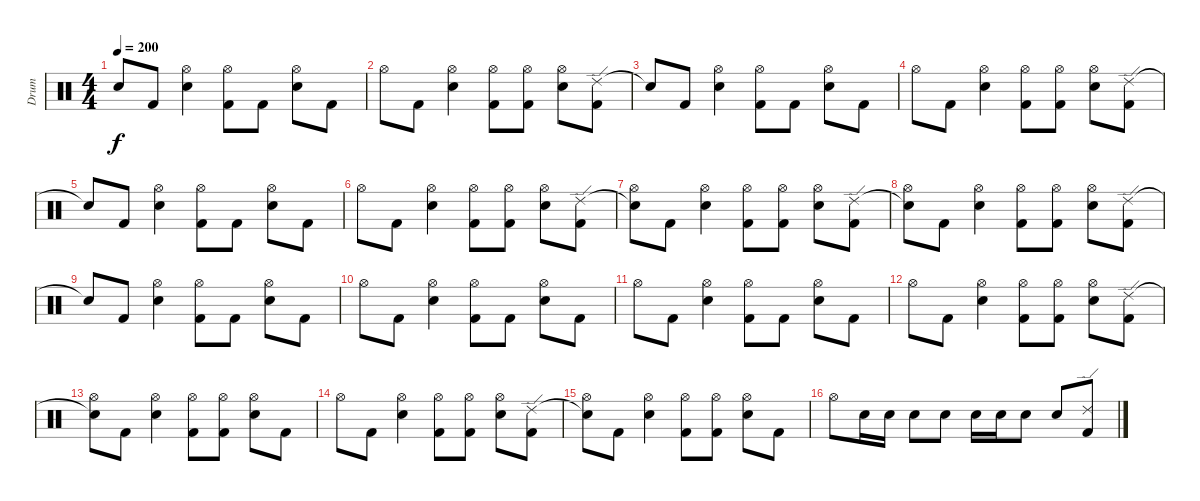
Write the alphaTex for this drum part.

\track ("Drum" "Drum") {instrument percussion}
\staff {score}
\articulation defaults
\ts (4 4)
\tempo 200
\clef neutral
\ks c "Snare (hit)"{t}.8{dy f} "Kick (hit) 2".8
("Hi-Hat (open)" "Electric Snare (hit)").4 ("Hi-Hat (open)" "Kick (hit) 2").8 "Kick (hit) 2".8 ("Hi-Hat (open)" "Electric Snare (hit)").8 "Kick (hit) 2".8 |
"Hi-Hat (open)".8 "Kick (hit) 2".8 ("Hi-Hat (open)" "Electric Snare (hit)").4 ("Hi-Hat (open)" "Kick (hit) 2").8 ("Hi-Hat (open)" "Kick (hit) 2").8 ("Hi-Hat (open)" "Electric Snare (hit)").8 ("Ride (edge) 2" "Kick (hit) 2").8 |
"Snare (hit)"{t}.8 "Kick (hit) 2".8 ("Hi-Hat (open)" "Electric Snare (hit)").4 ("Hi-Hat (open)" "Kick (hit) 2").8 "Kick (hit) 2".8 ("Hi-Hat (open)" "Electric Snare (hit)").8 "Kick (hit) 2".8 |
"Hi-Hat (open)".8 "Kick (hit) 2".8 ("Hi-Hat (open)" "Electric Snare (hit)").4 ("Hi-Hat (open)" "Kick (hit) 2").8 ("Hi-Hat (open)" "Kick (hit) 2").8 ("Hi-Hat (open)" "Electric Snare (hit)").8 ("Ride (edge) 2" "Kick (hit) 2").8 |
"Snare (hit)"{t}.8 "Kick (hit) 2".8 ("Hi-Hat (open)" "Electric Snare (hit)").4 ("Hi-Hat (open)" "Kick (hit) 2").8 "Kick (hit) 2".8 ("Hi-Hat (open)" "Electric Snare (hit)").8 "Kick (hit) 2".8 |
"Hi-Hat (open)".8 "Kick (hit) 2".8 ("Hi-Hat (open)" "Electric Snare (hit)").4 ("Hi-Hat (open)" "Kick (hit) 2").8 ("Hi-Hat (open)" "Kick (hit) 2").8 ("Hi-Hat (open)" "Electric Snare (hit)").8 ("Ride (edge) 2" "Kick (hit) 2").8 |
("Snare (hit)"{t} "Hi-Hat (open)").8 "Kick (hit) 2".8 ("Hi-Hat (open)" "Electric Snare (hit)").4 ("Hi-Hat (open)" "Kick (hit) 2").8 ("Hi-Hat (open)" "Kick (hit) 2").8 ("Hi-Hat (open)" "Electric Snare (hit)").8 ("Ride (edge) 2" "Kick (hit) 2").8 |
("Snare (hit)"{t} "Hi-Hat (open)").8 "Kick (hit) 2".8 ("Hi-Hat (open)" "Electric Snare (hit)").4 ("Hi-Hat (open)" "Kick (hit) 2").8 ("Hi-Hat (open)" "Kick (hit) 2").8 ("Hi-Hat (open)" "Electric Snare (hit)").8 ("Ride (edge) 2" "Kick (hit) 2").8 |
"Snare (hit)"{t}.8 "Kick (hit) 2".8 ("Hi-Hat (open)" "Electric Snare (hit)").4 ("Hi-Hat (open)" "Kick (hit) 2").8 "Kick (hit) 2".8 ("Hi-Hat (open)" "Electric Snare (hit)").8 "Kick (hit) 2".8 |
"Hi-Hat (open)".8 "Kick (hit) 2".8 ("Hi-Hat (open)" "Electric Snare (hit)").4 ("Hi-Hat (open)" "Kick (hit) 2").8 "Kick (hit) 2".8 ("Hi-Hat (open)" "Electric Snare (hit)").8 "Kick (hit) 2".8 |
"Hi-Hat (open)".8 "Kick (hit) 2".8 ("Hi-Hat (open)" "Electric Snare (hit)").4 ("Hi-Hat (open)" "Kick (hit) 2").8 "Kick (hit) 2".8 ("Hi-Hat (open)" "Electric Snare (hit)").8 "Kick (hit) 2".8 |
"Hi-Hat (open)".8 "Kick (hit) 2".8 ("Hi-Hat (open)" "Electric Snare (hit)").4 ("Hi-Hat (open)" "Kick (hit) 2").8 ("Hi-Hat (open)" "Kick (hit) 2").8 ("Hi-Hat (open)" "Electric Snare (hit)").8 ("Ride (edge) 2" "Kick (hit) 2").8 |
("Snare (hit)"{t} "Hi-Hat (open)").8 "Kick (hit) 2".8 ("Hi-Hat (open)" "Electric Snare (hit)").4 ("Hi-Hat (open)" "Kick (hit) 2").8 ("Hi-Hat (open)" "Kick (hit) 2").8 ("Hi-Hat (open)" "Electric Snare (hit)").8 "Kick (hit) 2".8 |
"Hi-Hat (open)".8 "Kick (hit) 2".8 ("Hi-Hat (open)" "Electric Snare (hit)").4 ("Hi-Hat (open)" "Kick (hit) 2").8 ("Hi-Hat (open)" "Kick (hit) 2").8 ("Hi-Hat (open)" "Electric Snare (hit)").8 ("Ride (edge) 2" "Kick (hit) 2").8 |
("Snare (hit)"{t} "Hi-Hat (open)").8 "Kick (hit) 2".8 ("Hi-Hat (open)" "Electric Snare (hit)").4 ("Hi-Hat (open)" "Kick (hit) 2").8 ("Hi-Hat (open)" "Kick (hit) 2").8 ("Hi-Hat (open)" "Electric Snare (hit)").8 "Kick (hit) 2".8 |
"Hi-Hat (open)".8 "Electric Snare (hit)".16 "Electric Snare (hit)".16 "Electric Snare (hit)".8 "Electric Snare (hit)".8 "Electric Snare (hit)".16 "Electric Snare (hit)".16 "Electric Snare (hit)".8 "Electric Snare (hit)".8 ("Ride (edge) 2" "Kick (hit) 2").8
